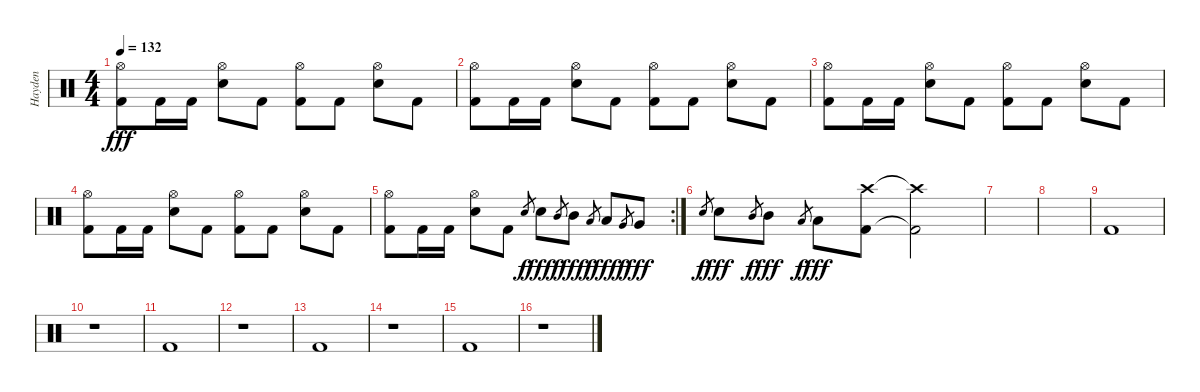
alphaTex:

\track ("Hayden" "Hayden") {instrument percussion}
\staff {score}
\articulation defaults
\ts (4 4)
\tempo 132
\clef neutral
\ks c
("Kick (hit) 2" "Hi-Hat (open)").8{dy fff} "Kick (hit) 2".16 "Kick (hit) 2".16 ("Hi-Hat (open)" "Electric Snare (hit)").8 "Kick (hit) 2".8 ("Hi-Hat (open)" "Kick (hit) 2").8 "Kick (hit) 2".8 ("Hi-Hat (open)" "Electric Snare (hit)").8 "Kick (hit) 2".8 |
("Kick (hit) 2" "Hi-Hat (open)").8 "Kick (hit) 2".16 "Kick (hit) 2".16 ("Hi-Hat (open)" "Electric Snare (hit)").8 "Kick (hit) 2".8 ("Hi-Hat (open)" "Kick (hit) 2").8 "Kick (hit) 2".8 ("Hi-Hat (open)" "Electric Snare (hit)").8 "Kick (hit) 2".8 |
("Kick (hit) 2" "Hi-Hat (open)").8 "Kick (hit) 2".16 "Kick (hit) 2".16 ("Hi-Hat (open)" "Electric Snare (hit)").8 "Kick (hit) 2".8 ("Hi-Hat (open)" "Kick (hit) 2").8 "Kick (hit) 2".8 ("Hi-Hat (open)" "Electric Snare (hit)").8 "Kick (hit) 2".8 |
("Kick (hit) 2" "Hi-Hat (open)").8 "Kick (hit) 2".16 "Kick (hit) 2".16 ("Hi-Hat (open)" "Electric Snare (hit)").8 "Kick (hit) 2".8 ("Hi-Hat (open)" "Kick (hit) 2").8 "Kick (hit) 2".8 ("Hi-Hat (open)" "Electric Snare (hit)").8 "Kick (hit) 2".8 |
\rc 2
("Kick (hit) 2" "Hi-Hat (open)").8 "Kick (hit) 2".16 "Kick (hit) 2".16 ("Hi-Hat (open)" "Electric Snare (hit)").8 "Kick (hit) 2".8 "Electric Snare (hit)".8{gr dy f} "Electric Snare (hit)".8{dy fff} "Mid Tom (hit)".8{gr dy f} "Mid Tom (hit)".8{dy fff} "Low Tom (hit)".8{gr dy f} "Low Tom (hit)".8{dy fff} "Very Low Tom (hit)".8{gr dy f} "Very Low Tom (hit)".8{dy fff} |
"Electric Snare (hit)".8{gr dy f} "Electric Snare (hit)".8{dy fff} "Mid Tom (hit)".8{gr dy f} "Mid Tom (hit)".8{dy fff} "Low Tom (hit)".8{gr dy f} "Low Tom (hit)".8{dy fff} ("Crash high (hit)" "Kick (hit) 2").8 ("Crash high (hit)"{t} "Kick (hit) 2"{t}).2 |
|
|
"Kick (hit) 2".1 |
r.1 |
"Kick (hit) 2".1 |
r.1 |
"Kick (hit) 2".1 |
r.1 |
"Kick (hit) 2".1 |
r.1
